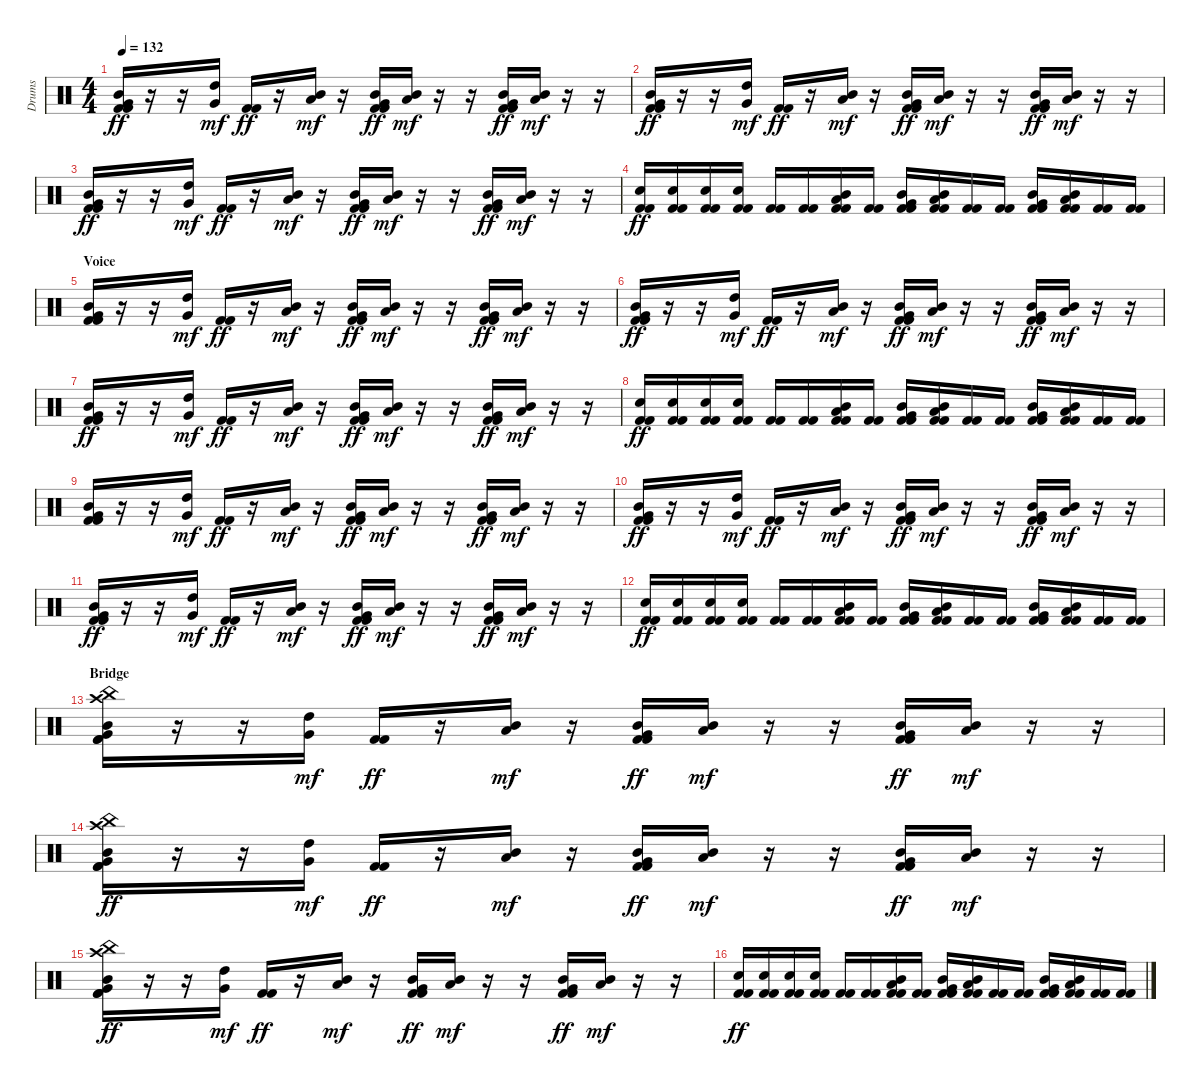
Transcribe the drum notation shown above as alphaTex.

\track ("Drums" "Drums") {instrument percussion}
\staff {score}
\articulation defaults
\ts (4 4)
\tempo 132
\clef neutral
\ks c
("Mid Tom (hit)" "Very Low Tom (hit)" "Kick (hit) 2" "Kick (hit) 2").16{dy ff} r.16 r.16 ("High Tom (hit)" "Very Low Tom (hit)").16{dy mf} ("Kick (hit) 2" "Kick (hit) 2").16{dy ff} r.16 ("Mid Tom (hit)" "Low Tom (hit)").16{dy mf} r.16 ("Mid Tom (hit)" "Very Low Tom (hit)" "Kick (hit) 2" "Kick (hit) 2").16{dy ff} ("Low Tom (hit)" "Mid Tom (hit)").16{dy mf} r.16 r.16 ("Mid Tom (hit)" "Very Low Tom (hit)" "Kick (hit) 2" "Kick (hit) 2").16{dy ff} ("Mid Tom (hit)" "Low Tom (hit)").16{dy mf} r.16 r.16 |
("Mid Tom (hit)" "Very Low Tom (hit)" "Kick (hit) 2" "Kick (hit) 2").16{dy ff} r.16 r.16 ("High Tom (hit)" "Very Low Tom (hit)").16{dy mf} ("Kick (hit) 2" "Kick (hit) 2").16{dy ff} r.16 ("Mid Tom (hit)" "Low Tom (hit)").16{dy mf} r.16 ("Mid Tom (hit)" "Very Low Tom (hit)" "Kick (hit) 2" "Kick (hit) 2").16{dy ff} ("Low Tom (hit)" "Mid Tom (hit)").16{dy mf} r.16 r.16 ("Mid Tom (hit)" "Very Low Tom (hit)" "Kick (hit) 2" "Kick (hit) 2").16{dy ff} ("Mid Tom (hit)" "Low Tom (hit)").16{dy mf} r.16 r.16 |
("Mid Tom (hit)" "Very Low Tom (hit)" "Kick (hit) 2" "Kick (hit) 2").16{dy ff} r.16 r.16 ("High Tom (hit)" "Very Low Tom (hit)").16{dy mf} ("Kick (hit) 2" "Kick (hit) 2").16{dy ff} r.16 ("Mid Tom (hit)" "Low Tom (hit)").16{dy mf} r.16 ("Mid Tom (hit)" "Very Low Tom (hit)" "Kick (hit) 2" "Kick (hit) 2").16{dy ff} ("Low Tom (hit)" "Mid Tom (hit)").16{dy mf} r.16 r.16 ("Mid Tom (hit)" "Very Low Tom (hit)" "Kick (hit) 2" "Kick (hit) 2").16{dy ff} ("Mid Tom (hit)" "Low Tom (hit)").16{dy mf} r.16 r.16 |
("Electric Snare (hit)" "Kick (hit) 2" "Kick (hit) 2").16{dy ff} ("Electric Snare (hit)" "Kick (hit) 2" "Kick (hit) 2").16 ("Electric Snare (hit)" "Kick (hit) 2" "Kick (hit) 2").16 ("Electric Snare (hit)" "Kick (hit) 2" "Kick (hit) 2").16 ("Kick (hit) 2" "Kick (hit) 2").16 ("Kick (hit) 2" "Kick (hit) 2").16 ("Mid Tom (hit)" "Low Tom (hit)" "Kick (hit) 2" "Kick (hit) 2").16 ("Kick (hit) 2" "Kick (hit) 2").16 ("Mid Tom (hit)" "Very Low Tom (hit)" "Kick (hit) 2" "Kick (hit) 2").16 ("Low Tom (hit)" "Mid Tom (hit)" "Kick (hit) 2" "Kick (hit) 2").16 ("Kick (hit) 2" "Kick (hit) 2").16 ("Kick (hit) 2" "Kick (hit) 2").16 ("Mid Tom (hit)" "Very Low Tom (hit)" "Kick (hit) 2" "Kick (hit) 2").16 ("Mid Tom (hit)" "Low Tom (hit)" "Kick (hit) 2" "Kick (hit) 2").16 ("Kick (hit) 2" "Kick (hit) 2").16 ("Kick (hit) 2" "Kick (hit) 2").16 |
\section ("" "Voice")
("Mid Tom (hit)" "Very Low Tom (hit)" "Kick (hit) 2" "Kick (hit) 2").16 r.16 r.16 ("High Tom (hit)" "Very Low Tom (hit)").16{dy mf} ("Kick (hit) 2" "Kick (hit) 2").16{dy ff} r.16 ("Mid Tom (hit)" "Low Tom (hit)").16{dy mf} r.16 ("Mid Tom (hit)" "Very Low Tom (hit)" "Kick (hit) 2" "Kick (hit) 2").16{dy ff} ("Low Tom (hit)" "Mid Tom (hit)").16{dy mf} r.16 r.16 ("Mid Tom (hit)" "Very Low Tom (hit)" "Kick (hit) 2" "Kick (hit) 2").16{dy ff} ("Mid Tom (hit)" "Low Tom (hit)").16{dy mf} r.16 r.16 |
("Mid Tom (hit)" "Very Low Tom (hit)" "Kick (hit) 2" "Kick (hit) 2").16{dy ff} r.16 r.16 ("High Tom (hit)" "Very Low Tom (hit)").16{dy mf} ("Kick (hit) 2" "Kick (hit) 2").16{dy ff} r.16 ("Mid Tom (hit)" "Low Tom (hit)").16{dy mf} r.16 ("Mid Tom (hit)" "Very Low Tom (hit)" "Kick (hit) 2" "Kick (hit) 2").16{dy ff} ("Low Tom (hit)" "Mid Tom (hit)").16{dy mf} r.16 r.16 ("Mid Tom (hit)" "Very Low Tom (hit)" "Kick (hit) 2" "Kick (hit) 2").16{dy ff} ("Mid Tom (hit)" "Low Tom (hit)").16{dy mf} r.16 r.16 |
("Mid Tom (hit)" "Very Low Tom (hit)" "Kick (hit) 2" "Kick (hit) 2").16{dy ff} r.16 r.16 ("High Tom (hit)" "Very Low Tom (hit)").16{dy mf} ("Kick (hit) 2" "Kick (hit) 2").16{dy ff} r.16 ("Mid Tom (hit)" "Low Tom (hit)").16{dy mf} r.16 ("Mid Tom (hit)" "Very Low Tom (hit)" "Kick (hit) 2" "Kick (hit) 2").16{dy ff} ("Low Tom (hit)" "Mid Tom (hit)").16{dy mf} r.16 r.16 ("Mid Tom (hit)" "Very Low Tom (hit)" "Kick (hit) 2" "Kick (hit) 2").16{dy ff} ("Mid Tom (hit)" "Low Tom (hit)").16{dy mf} r.16 r.16 |
("Electric Snare (hit)" "Kick (hit) 2" "Kick (hit) 2").16{dy ff} ("Electric Snare (hit)" "Kick (hit) 2" "Kick (hit) 2").16 ("Electric Snare (hit)" "Kick (hit) 2" "Kick (hit) 2").16 ("Electric Snare (hit)" "Kick (hit) 2" "Kick (hit) 2").16 ("Kick (hit) 2" "Kick (hit) 2").16 ("Kick (hit) 2" "Kick (hit) 2").16 ("Mid Tom (hit)" "Low Tom (hit)" "Kick (hit) 2" "Kick (hit) 2").16 ("Kick (hit) 2" "Kick (hit) 2").16 ("Mid Tom (hit)" "Very Low Tom (hit)" "Kick (hit) 2" "Kick (hit) 2").16 ("Low Tom (hit)" "Mid Tom (hit)" "Kick (hit) 2" "Kick (hit) 2").16 ("Kick (hit) 2" "Kick (hit) 2").16 ("Kick (hit) 2" "Kick (hit) 2").16 ("Mid Tom (hit)" "Very Low Tom (hit)" "Kick (hit) 2" "Kick (hit) 2").16 ("Mid Tom (hit)" "Low Tom (hit)" "Kick (hit) 2" "Kick (hit) 2").16 ("Kick (hit) 2" "Kick (hit) 2").16 ("Kick (hit) 2" "Kick (hit) 2").16 |
("Mid Tom (hit)" "Very Low Tom (hit)" "Kick (hit) 2" "Kick (hit) 2").16 r.16 r.16 ("High Tom (hit)" "Very Low Tom (hit)").16{dy mf} ("Kick (hit) 2" "Kick (hit) 2").16{dy ff} r.16 ("Mid Tom (hit)" "Low Tom (hit)").16{dy mf} r.16 ("Mid Tom (hit)" "Very Low Tom (hit)" "Kick (hit) 2" "Kick (hit) 2").16{dy ff} ("Low Tom (hit)" "Mid Tom (hit)").16{dy mf} r.16 r.16 ("Mid Tom (hit)" "Very Low Tom (hit)" "Kick (hit) 2" "Kick (hit) 2").16{dy ff} ("Mid Tom (hit)" "Low Tom (hit)").16{dy mf} r.16 r.16 |
("Mid Tom (hit)" "Very Low Tom (hit)" "Kick (hit) 2" "Kick (hit) 2").16{dy ff} r.16 r.16 ("High Tom (hit)" "Very Low Tom (hit)").16{dy mf} ("Kick (hit) 2" "Kick (hit) 2").16{dy ff} r.16 ("Mid Tom (hit)" "Low Tom (hit)").16{dy mf} r.16 ("Mid Tom (hit)" "Very Low Tom (hit)" "Kick (hit) 2" "Kick (hit) 2").16{dy ff} ("Low Tom (hit)" "Mid Tom (hit)").16{dy mf} r.16 r.16 ("Mid Tom (hit)" "Very Low Tom (hit)" "Kick (hit) 2" "Kick (hit) 2").16{dy ff} ("Mid Tom (hit)" "Low Tom (hit)").16{dy mf} r.16 r.16 |
("Mid Tom (hit)" "Very Low Tom (hit)" "Kick (hit) 2" "Kick (hit) 2").16{dy ff} r.16 r.16 ("High Tom (hit)" "Very Low Tom (hit)").16{dy mf} ("Kick (hit) 2" "Kick (hit) 2").16{dy ff} r.16 ("Mid Tom (hit)" "Low Tom (hit)").16{dy mf} r.16 ("Mid Tom (hit)" "Very Low Tom (hit)" "Kick (hit) 2" "Kick (hit) 2").16{dy ff} ("Low Tom (hit)" "Mid Tom (hit)").16{dy mf} r.16 r.16 ("Mid Tom (hit)" "Very Low Tom (hit)" "Kick (hit) 2" "Kick (hit) 2").16{dy ff} ("Mid Tom (hit)" "Low Tom (hit)").16{dy mf} r.16 r.16 |
("Electric Snare (hit)" "Kick (hit) 2" "Kick (hit) 2").16{dy ff} ("Electric Snare (hit)" "Kick (hit) 2" "Kick (hit) 2").16 ("Electric Snare (hit)" "Kick (hit) 2" "Kick (hit) 2").16 ("Electric Snare (hit)" "Kick (hit) 2" "Kick (hit) 2").16 ("Kick (hit) 2" "Kick (hit) 2").16 ("Kick (hit) 2" "Kick (hit) 2").16 ("Mid Tom (hit)" "Low Tom (hit)" "Kick (hit) 2" "Kick (hit) 2").16 ("Kick (hit) 2" "Kick (hit) 2").16 ("Mid Tom (hit)" "Very Low Tom (hit)" "Kick (hit) 2" "Kick (hit) 2").16 ("Low Tom (hit)" "Mid Tom (hit)" "Kick (hit) 2" "Kick (hit) 2").16 ("Kick (hit) 2" "Kick (hit) 2").16 ("Kick (hit) 2" "Kick (hit) 2").16 ("Mid Tom (hit)" "Very Low Tom (hit)" "Kick (hit) 2" "Kick (hit) 2").16 ("Mid Tom (hit)" "Low Tom (hit)" "Kick (hit) 2" "Kick (hit) 2").16 ("Kick (hit) 2" "Kick (hit) 2").16 ("Kick (hit) 2" "Kick (hit) 2").16 |
\section ("" "Bridge")
("China (hit)" "Mid Tom (hit)" "Very Low Tom (hit)" "Crash high (hit)" "Kick (hit) 2" "Kick (hit) 2").16 r.16 r.16 ("High Tom (hit)" "Very Low Tom (hit)").16{dy mf} ("Kick (hit) 2" "Kick (hit) 2").16{dy ff} r.16 ("Mid Tom (hit)" "Low Tom (hit)").16{dy mf} r.16 ("Mid Tom (hit)" "Very Low Tom (hit)" "Kick (hit) 2" "Kick (hit) 2").16{dy ff} ("Low Tom (hit)" "Mid Tom (hit)").16{dy mf} r.16 r.16 ("Mid Tom (hit)" "Very Low Tom (hit)" "Kick (hit) 2" "Kick (hit) 2").16{dy ff} ("Mid Tom (hit)" "Low Tom (hit)").16{dy mf} r.16 r.16 |
("China (hit)" "Mid Tom (hit)" "Very Low Tom (hit)" "Crash high (hit)" "Kick (hit) 2" "Kick (hit) 2").16{dy ff} r.16 r.16 ("High Tom (hit)" "Very Low Tom (hit)").16{dy mf} ("Kick (hit) 2" "Kick (hit) 2").16{dy ff} r.16 ("Mid Tom (hit)" "Low Tom (hit)").16{dy mf} r.16 ("Mid Tom (hit)" "Very Low Tom (hit)" "Kick (hit) 2" "Kick (hit) 2").16{dy ff} ("Low Tom (hit)" "Mid Tom (hit)").16{dy mf} r.16 r.16 ("Mid Tom (hit)" "Very Low Tom (hit)" "Kick (hit) 2" "Kick (hit) 2").16{dy ff} ("Mid Tom (hit)" "Low Tom (hit)").16{dy mf} r.16 r.16 |
("China (hit)" "Mid Tom (hit)" "Very Low Tom (hit)" "Crash high (hit)" "Kick (hit) 2" "Kick (hit) 2").16{dy ff} r.16 r.16 ("High Tom (hit)" "Very Low Tom (hit)").16{dy mf} ("Kick (hit) 2" "Kick (hit) 2").16{dy ff} r.16 ("Mid Tom (hit)" "Low Tom (hit)").16{dy mf} r.16 ("Mid Tom (hit)" "Very Low Tom (hit)" "Kick (hit) 2" "Kick (hit) 2").16{dy ff} ("Low Tom (hit)" "Mid Tom (hit)").16{dy mf} r.16 r.16 ("Mid Tom (hit)" "Very Low Tom (hit)" "Kick (hit) 2" "Kick (hit) 2").16{dy ff} ("Mid Tom (hit)" "Low Tom (hit)").16{dy mf} r.16 r.16 |
("Electric Snare (hit)" "Kick (hit) 2" "Kick (hit) 2").16{dy ff} ("Electric Snare (hit)" "Kick (hit) 2" "Kick (hit) 2").16 ("Electric Snare (hit)" "Kick (hit) 2" "Kick (hit) 2").16 ("Electric Snare (hit)" "Kick (hit) 2" "Kick (hit) 2").16 ("Kick (hit) 2" "Kick (hit) 2").16 ("Kick (hit) 2" "Kick (hit) 2").16 ("Mid Tom (hit)" "Low Tom (hit)" "Kick (hit) 2" "Kick (hit) 2").16 ("Kick (hit) 2" "Kick (hit) 2").16 ("Mid Tom (hit)" "Very Low Tom (hit)" "Kick (hit) 2" "Kick (hit) 2").16 ("Low Tom (hit)" "Mid Tom (hit)" "Kick (hit) 2" "Kick (hit) 2").16 ("Kick (hit) 2" "Kick (hit) 2").16 ("Kick (hit) 2" "Kick (hit) 2").16 ("Mid Tom (hit)" "Very Low Tom (hit)" "Kick (hit) 2" "Kick (hit) 2").16 ("Mid Tom (hit)" "Low Tom (hit)" "Kick (hit) 2" "Kick (hit) 2").16 ("Kick (hit) 2" "Kick (hit) 2").16 ("Kick (hit) 2" "Kick (hit) 2").16
